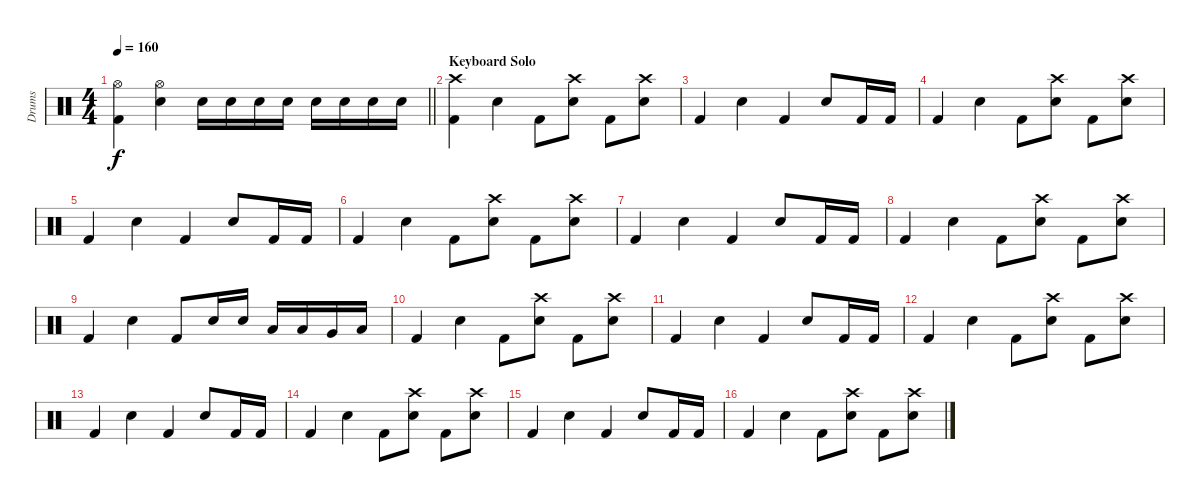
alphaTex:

\track ("Drums" "Drums") {instrument percussion}
\staff {score}
\articulation defaults
\ts (4 4)
\tempo 160
\clef neutral
\barLineRight lightlight
\ks c
("Kick (hit) 2" "Hi-Hat (open)").4{dy f} ("Snare (hit) 2" "Hi-Hat (open)").4 "Snare (hit) 2".16 "Snare (hit) 2".16 "Snare (hit) 2".16 "Snare (hit) 2".16 "Snare (hit) 2".16 "Snare (hit) 2".16 "Snare (hit) 2".16 "Snare (hit) 2".16 |
\section ("" "Keyboard Solo")
("Kick (hit) 2" "Crash high (hit)").4 "Snare (hit) 2".4 "Kick (hit) 2".8 ("Snare (hit) 2" "Crash high (hit)").8 "Kick (hit) 2".8 ("Snare (hit) 2" "Crash high (hit)").8 |
"Kick (hit) 2".4 "Snare (hit) 2".4 "Kick (hit) 2".4 "Snare (hit) 2".8 "Kick (hit) 2".16 "Kick (hit) 2".16 |
"Kick (hit) 2".4 "Snare (hit) 2".4 "Kick (hit) 2".8 ("Snare (hit) 2" "Crash high (hit)").8 "Kick (hit) 2".8 ("Snare (hit) 2" "Crash high (hit)").8 |
"Kick (hit) 2".4 "Snare (hit) 2".4 "Kick (hit) 2".4 "Snare (hit) 2".8 "Kick (hit) 2".16 "Kick (hit) 2".16 |
"Kick (hit) 2".4 "Snare (hit) 2".4 "Kick (hit) 2".8 ("Snare (hit) 2" "Crash high (hit)").8 "Kick (hit) 2".8 ("Snare (hit) 2" "Crash high (hit)").8 |
"Kick (hit) 2".4 "Snare (hit) 2".4 "Kick (hit) 2".4 "Snare (hit) 2".8 "Kick (hit) 2".16 "Kick (hit) 2".16 |
"Kick (hit) 2".4 "Snare (hit) 2".4 "Kick (hit) 2".8 ("Snare (hit) 2" "Crash high (hit)").8 "Kick (hit) 2".8 ("Snare (hit) 2" "Crash high (hit)").8 |
"Kick (hit) 2".4 "Snare (hit) 2".4 "Kick (hit) 2".8 "Snare (hit) 2".16 "Snare (hit) 2".16 "Low Tom (hit)".16 "Low Tom (hit)".16 "Very Low Tom (hit)".16 "Low Floor Tom (hit)".16 |
"Kick (hit) 2".4 "Snare (hit) 2".4 "Kick (hit) 2".8 ("Snare (hit) 2" "Crash high (hit)").8 "Kick (hit) 2".8 ("Snare (hit) 2" "Crash high (hit)").8 |
"Kick (hit) 2".4 "Snare (hit) 2".4 "Kick (hit) 2".4 "Snare (hit) 2".8 "Kick (hit) 2".16 "Kick (hit) 2".16 |
"Kick (hit) 2".4 "Snare (hit) 2".4 "Kick (hit) 2".8 ("Snare (hit) 2" "Crash high (hit)").8 "Kick (hit) 2".8 ("Snare (hit) 2" "Crash high (hit)").8 |
"Kick (hit) 2".4 "Snare (hit) 2".4 "Kick (hit) 2".4 "Snare (hit) 2".8 "Kick (hit) 2".16 "Kick (hit) 2".16 |
"Kick (hit) 2".4 "Snare (hit) 2".4 "Kick (hit) 2".8 ("Snare (hit) 2" "Crash high (hit)").8 "Kick (hit) 2".8 ("Snare (hit) 2" "Crash high (hit)").8 |
"Kick (hit) 2".4 "Snare (hit) 2".4 "Kick (hit) 2".4 "Snare (hit) 2".8 "Kick (hit) 2".16 "Kick (hit) 2".16 |
"Kick (hit) 2".4 "Snare (hit) 2".4 "Kick (hit) 2".8 ("Snare (hit) 2" "Crash high (hit)").8 "Kick (hit) 2".8 ("Snare (hit) 2" "Crash high (hit)").8
